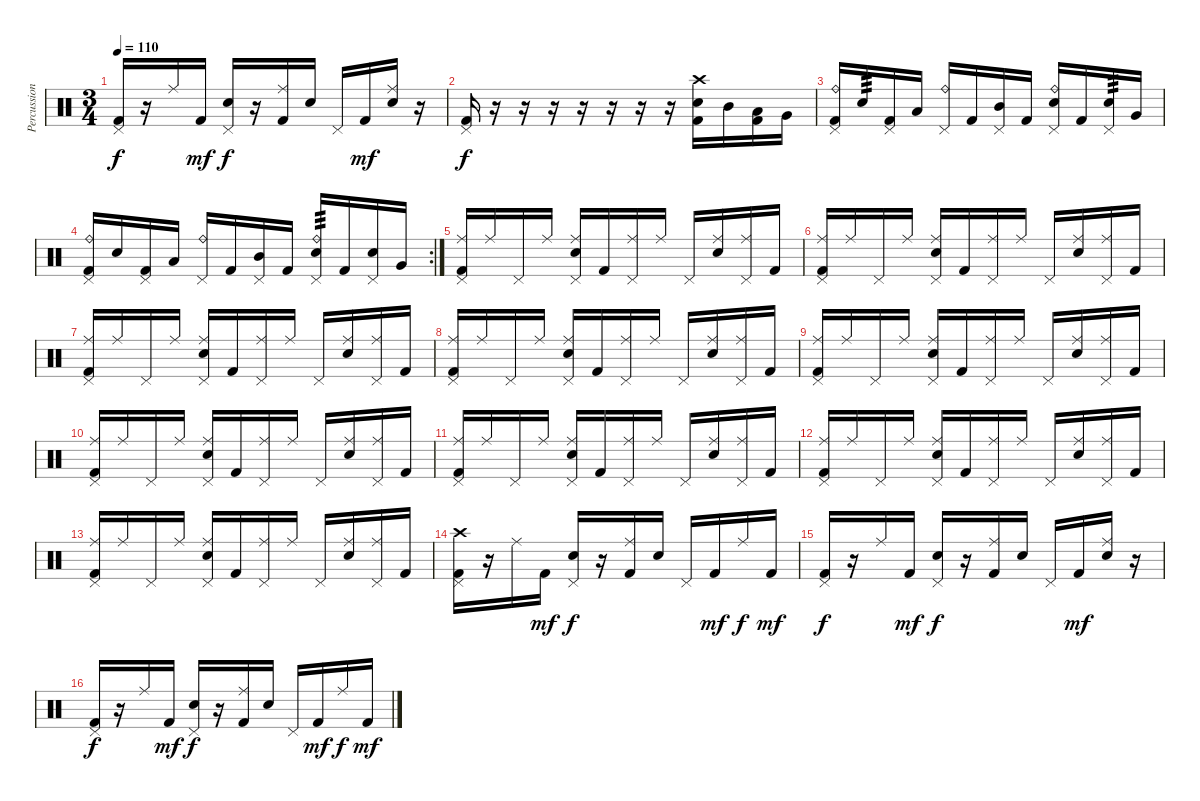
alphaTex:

\track ("Percussion" "Percussion") {instrument percussion}
\staff {score}
\articulation defaults
\ts (3 4)
\tempo 110
\clef neutral
\ks c
("Pedal Hi-Hat (hit)" "Kick (hit) 2").16{dy f} r.16 "Ride (middle)".16 "Kick (hit) 2".16{dy mf} ("Electric Snare (hit)" "Pedal Hi-Hat (hit)").16{dy f} r.16 ("Ride (middle)" "Kick (hit) 2").16 "Electric Snare (hit)".16 "Pedal Hi-Hat (hit)".16 "Kick (hit) 2".16{dy mf} ("Ride (middle)" "Electric Snare (hit)").16 r.16 |
("Pedal Hi-Hat (hit)" "Kick (hit) 2").16{dy f} r.16 r.16 r.16 r.16 r.16 r.16 r.16 ("Crash high (hit)" "Electric Snare (hit)" "Kick (hit) 2").16 "Mid Tom (hit)".16 ("Low Tom (hit)" "Kick (hit) 2").16 "Very Low Tom (hit)".16 |
("Ride (bell)" "Pedal Hi-Hat (hit)" "Kick (hit) 2").16 "Electric Snare (hit)".16{tp 3} ("Pedal Hi-Hat (hit)" "Kick (hit) 2").16 "Low Tom (hit)".16 ("Ride (bell)" "Pedal Hi-Hat (hit)").16 "Kick (hit) 2".16 ("Mid Tom (hit)" "Pedal Hi-Hat (hit)").16 "Kick (hit) 2".16 ("Ride (bell)" "Electric Snare (hit)" "Pedal Hi-Hat (hit)").16 "Kick (hit) 2".16 ("Electric Snare (hit)" "Pedal Hi-Hat (hit)").16{tp 3} "Very Low Tom (hit)".16 |
\rc 2
("Ride (bell)" "Pedal Hi-Hat (hit)" "Kick (hit) 2").16 "Electric Snare (hit)".16 ("Pedal Hi-Hat (hit)" "Kick (hit) 2").16 "Low Tom (hit)".16 ("Ride (bell)" "Pedal Hi-Hat (hit)").16 "Kick (hit) 2".16 ("Mid Tom (hit)" "Pedal Hi-Hat (hit)").16 "Kick (hit) 2".16 ("Ride (bell)" "Electric Snare (hit)" "Pedal Hi-Hat (hit)").16{tp 3} "Kick (hit) 2".16 ("Electric Snare (hit)" "Pedal Hi-Hat (hit)").16 "Very Low Tom (hit)".16 |
("Ride (middle)" "Pedal Hi-Hat (hit)" "Kick (hit) 2").16 "Ride (middle)".16 "Pedal Hi-Hat (hit)".16 "Ride (middle)".16 ("Ride (middle)" "Electric Snare (hit)" "Pedal Hi-Hat (hit)").16 "Kick (hit) 2".16 ("Ride (middle)" "Pedal Hi-Hat (hit)").16 "Ride (middle)".16 "Pedal Hi-Hat (hit)".16 ("Ride (middle)" "Electric Snare (hit)").16 ("Ride (middle)" "Pedal Hi-Hat (hit)").16 "Kick (hit) 2".16 |
("Ride (middle)" "Pedal Hi-Hat (hit)" "Kick (hit) 2").16 "Ride (middle)".16 "Pedal Hi-Hat (hit)".16 "Ride (middle)".16 ("Ride (middle)" "Electric Snare (hit)" "Pedal Hi-Hat (hit)").16 "Kick (hit) 2".16 ("Ride (middle)" "Pedal Hi-Hat (hit)").16 "Ride (middle)".16 "Pedal Hi-Hat (hit)".16 ("Ride (middle)" "Electric Snare (hit)").16 ("Ride (middle)" "Pedal Hi-Hat (hit)").16 "Kick (hit) 2".16 |
("Ride (middle)" "Pedal Hi-Hat (hit)" "Kick (hit) 2").16 "Ride (middle)".16 "Pedal Hi-Hat (hit)".16 "Ride (middle)".16 ("Ride (middle)" "Electric Snare (hit)" "Pedal Hi-Hat (hit)").16 "Kick (hit) 2".16 ("Ride (middle)" "Pedal Hi-Hat (hit)").16 "Ride (middle)".16 "Pedal Hi-Hat (hit)".16 ("Ride (middle)" "Electric Snare (hit)").16 ("Ride (middle)" "Pedal Hi-Hat (hit)").16 "Kick (hit) 2".16 |
("Ride (middle)" "Pedal Hi-Hat (hit)" "Kick (hit) 2").16 "Ride (middle)".16 "Pedal Hi-Hat (hit)".16 "Ride (middle)".16 ("Ride (middle)" "Electric Snare (hit)" "Pedal Hi-Hat (hit)").16 "Kick (hit) 2".16 ("Ride (middle)" "Pedal Hi-Hat (hit)").16 "Ride (middle)".16 "Pedal Hi-Hat (hit)".16 ("Ride (middle)" "Electric Snare (hit)").16 ("Ride (middle)" "Pedal Hi-Hat (hit)").16 "Kick (hit) 2".16 |
("Ride (middle)" "Pedal Hi-Hat (hit)" "Kick (hit) 2").16 "Ride (middle)".16 "Pedal Hi-Hat (hit)".16 "Ride (middle)".16 ("Ride (middle)" "Electric Snare (hit)" "Pedal Hi-Hat (hit)").16 "Kick (hit) 2".16 ("Ride (middle)" "Pedal Hi-Hat (hit)").16 "Ride (middle)".16 "Pedal Hi-Hat (hit)".16 ("Ride (middle)" "Electric Snare (hit)").16 ("Ride (middle)" "Pedal Hi-Hat (hit)").16 "Kick (hit) 2".16 |
("Ride (middle)" "Pedal Hi-Hat (hit)" "Kick (hit) 2").16 "Ride (middle)".16 "Pedal Hi-Hat (hit)".16 "Ride (middle)".16 ("Ride (middle)" "Electric Snare (hit)" "Pedal Hi-Hat (hit)").16 "Kick (hit) 2".16 ("Ride (middle)" "Pedal Hi-Hat (hit)").16 "Ride (middle)".16 "Pedal Hi-Hat (hit)".16 ("Ride (middle)" "Electric Snare (hit)").16 ("Ride (middle)" "Pedal Hi-Hat (hit)").16 "Kick (hit) 2".16 |
("Ride (middle)" "Pedal Hi-Hat (hit)" "Kick (hit) 2").16 "Ride (middle)".16 "Pedal Hi-Hat (hit)".16 "Ride (middle)".16 ("Ride (middle)" "Electric Snare (hit)" "Pedal Hi-Hat (hit)").16 "Kick (hit) 2".16 ("Ride (middle)" "Pedal Hi-Hat (hit)").16 "Ride (middle)".16 "Pedal Hi-Hat (hit)".16 ("Ride (middle)" "Electric Snare (hit)").16 ("Ride (middle)" "Pedal Hi-Hat (hit)").16 "Kick (hit) 2".16 |
("Ride (middle)" "Pedal Hi-Hat (hit)" "Kick (hit) 2").16 "Ride (middle)".16 "Pedal Hi-Hat (hit)".16 "Ride (middle)".16 ("Ride (middle)" "Electric Snare (hit)" "Pedal Hi-Hat (hit)").16 "Kick (hit) 2".16 ("Ride (middle)" "Pedal Hi-Hat (hit)").16 "Ride (middle)".16 "Pedal Hi-Hat (hit)".16 ("Ride (middle)" "Electric Snare (hit)").16 ("Ride (middle)" "Pedal Hi-Hat (hit)").16 "Kick (hit) 2".16 |
("Ride (middle)" "Pedal Hi-Hat (hit)" "Kick (hit) 2").16 "Ride (middle)".16 "Pedal Hi-Hat (hit)".16 "Ride (middle)".16 ("Ride (middle)" "Electric Snare (hit)" "Pedal Hi-Hat (hit)").16 "Kick (hit) 2".16 ("Ride (middle)" "Pedal Hi-Hat (hit)").16 "Ride (middle)".16 "Pedal Hi-Hat (hit)".16 ("Ride (middle)" "Electric Snare (hit)").16 ("Ride (middle)" "Pedal Hi-Hat (hit)").16 "Kick (hit) 2".16 |
("Crash high (hit)" "Pedal Hi-Hat (hit)" "Kick (hit) 2").16 r.16 "Ride (middle)".16 "Kick (hit) 2".16{dy mf} ("Electric Snare (hit)" "Pedal Hi-Hat (hit)").16{dy f} r.16 ("Ride (middle)" "Kick (hit) 2").16 "Electric Snare (hit)".16 "Pedal Hi-Hat (hit)".16 "Kick (hit) 2".16{dy mf} "Ride (middle)".16{dy f} "Kick (hit) 2".16{dy mf} |
("Pedal Hi-Hat (hit)" "Kick (hit) 2").16{dy f} r.16 "Ride (middle)".16 "Kick (hit) 2".16{dy mf} ("Electric Snare (hit)" "Pedal Hi-Hat (hit)").16{dy f} r.16 ("Ride (middle)" "Kick (hit) 2").16 "Electric Snare (hit)".16 "Pedal Hi-Hat (hit)".16 "Kick (hit) 2".16{dy mf} ("Ride (middle)" "Electric Snare (hit)").16 r.16 |
("Pedal Hi-Hat (hit)" "Kick (hit) 2").16{dy f} r.16 "Ride (middle)".16 "Kick (hit) 2".16{dy mf} ("Electric Snare (hit)" "Pedal Hi-Hat (hit)").16{dy f} r.16 ("Ride (middle)" "Kick (hit) 2").16 "Electric Snare (hit)".16 "Pedal Hi-Hat (hit)".16 "Kick (hit) 2".16{dy mf} "Ride (middle)".16{dy f} "Kick (hit) 2".16{dy mf}
